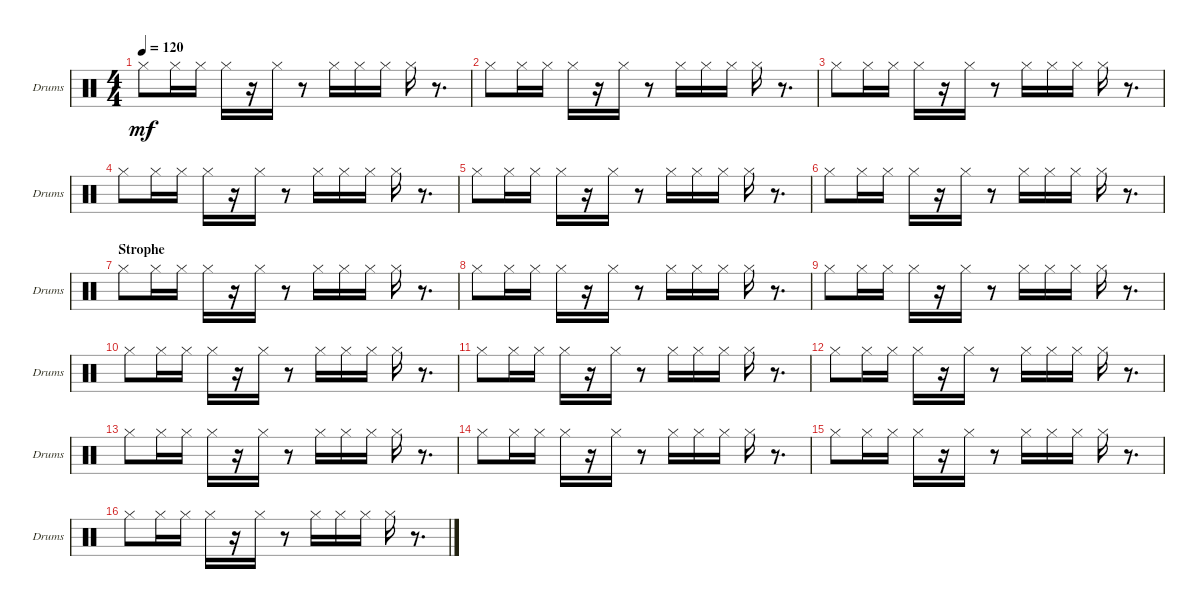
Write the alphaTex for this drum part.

\bracketExtendMode groupsimilarinstruments
\singleTrackTrackNamePolicy allsystems
\multiTrackTrackNamePolicy allsystems
\firstSystemTrackNameOrientation horizontal
\otherSystemsTrackNameOrientation horizontal
\track ("Drum hihat" "Drums") {instrument percussion}
\staff {score}
\articulation defaults
\ts (4 4)
\tempo 120
\clef neutral
\scale
0.973518
\ks c "Hi-Hat (closed)".8{dy mf} "Hi-Hat (closed)".16 "Hi-Hat (closed)".16 "Hi-Hat (closed)".16
r.16 "Hi-Hat (closed)".16 r.8 "Hi-Hat (closed)".16 "Hi-Hat (closed)".16 "Hi-Hat (closed)".16 "Hi-Hat (closed)".16 r.8{d} |
\scale
0.973518 "Hi-Hat (closed)".8 "Hi-Hat (closed)".16 "Hi-Hat (closed)".16 "Hi-Hat (closed)".16 r.16 "Hi-Hat (closed)".16 r.8 "Hi-Hat (closed)".16 "Hi-Hat (closed)".16 "Hi-Hat (closed)".16 "Hi-Hat (closed)".16 r.8{d} |
\scale
1.05296 "Hi-Hat (closed)".8 "Hi-Hat (closed)".16 "Hi-Hat (closed)".16 "Hi-Hat (closed)".16 r.16 "Hi-Hat (closed)".16 r.8 "Hi-Hat (closed)".16 "Hi-Hat (closed)".16 "Hi-Hat (closed)".16 "Hi-Hat (closed)".16 r.8{d} |
\scale
0.973518 "Hi-Hat (closed)".8 "Hi-Hat (closed)".16 "Hi-Hat (closed)".16 "Hi-Hat (closed)".16 r.16 "Hi-Hat (closed)".16 r.8 "Hi-Hat (closed)".16 "Hi-Hat (closed)".16 "Hi-Hat (closed)".16 "Hi-Hat (closed)".16 r.8{d} |
\scale
0.973518 "Hi-Hat (closed)".8 "Hi-Hat (closed)".16 "Hi-Hat (closed)".16 "Hi-Hat (closed)".16 r.16 "Hi-Hat (closed)".16 r.8 "Hi-Hat (closed)".16 "Hi-Hat (closed)".16 "Hi-Hat (closed)".16 "Hi-Hat (closed)".16 r.8{d} |
\scale
1.05296 "Hi-Hat (closed)".8 "Hi-Hat (closed)".16 "Hi-Hat (closed)".16 "Hi-Hat (closed)".16 r.16 "Hi-Hat (closed)".16 r.8 "Hi-Hat (closed)".16 "Hi-Hat (closed)".16 "Hi-Hat (closed)".16 "Hi-Hat (closed)".16 r.8{d} |
\section ("" "Strophe")
\scale
0.973518 "Hi-Hat (closed)".8 "Hi-Hat (closed)".16 "Hi-Hat (closed)".16 "Hi-Hat (closed)".16 r.16 "Hi-Hat (closed)".16 r.8 "Hi-Hat (closed)".16 "Hi-Hat (closed)".16 "Hi-Hat (closed)".16 "Hi-Hat (closed)".16 r.8{d} |
\scale
0.973518 "Hi-Hat (closed)".8 "Hi-Hat (closed)".16 "Hi-Hat (closed)".16 "Hi-Hat (closed)".16 r.16 "Hi-Hat (closed)".16 r.8 "Hi-Hat (closed)".16 "Hi-Hat (closed)".16 "Hi-Hat (closed)".16 "Hi-Hat (closed)".16 r.8{d} |
\scale
1.05296 "Hi-Hat (closed)".8 "Hi-Hat (closed)".16 "Hi-Hat (closed)".16 "Hi-Hat (closed)".16 r.16 "Hi-Hat (closed)".16 r.8 "Hi-Hat (closed)".16 "Hi-Hat (closed)".16 "Hi-Hat (closed)".16 "Hi-Hat (closed)".16 r.8{d} |
\scale
0.973518 "Hi-Hat (closed)".8 "Hi-Hat (closed)".16 "Hi-Hat (closed)".16 "Hi-Hat (closed)".16 r.16 "Hi-Hat (closed)".16 r.8 "Hi-Hat (closed)".16 "Hi-Hat (closed)".16 "Hi-Hat (closed)".16 "Hi-Hat (closed)".16 r.8{d} |
\scale
0.973518 "Hi-Hat (closed)".8 "Hi-Hat (closed)".16 "Hi-Hat (closed)".16 "Hi-Hat (closed)".16 r.16 "Hi-Hat (closed)".16 r.8 "Hi-Hat (closed)".16 "Hi-Hat (closed)".16 "Hi-Hat (closed)".16 "Hi-Hat (closed)".16 r.8{d} |
\scale
1.05296 "Hi-Hat (closed)".8 "Hi-Hat (closed)".16 "Hi-Hat (closed)".16 "Hi-Hat (closed)".16 r.16 "Hi-Hat (closed)".16 r.8 "Hi-Hat (closed)".16 "Hi-Hat (closed)".16 "Hi-Hat (closed)".16 "Hi-Hat (closed)".16 r.8{d} |
\scale
0.973518 "Hi-Hat (closed)".8 "Hi-Hat (closed)".16 "Hi-Hat (closed)".16 "Hi-Hat (closed)".16 r.16 "Hi-Hat (closed)".16 r.8 "Hi-Hat (closed)".16 "Hi-Hat (closed)".16 "Hi-Hat (closed)".16 "Hi-Hat (closed)".16 r.8{d} |
\scale
0.973518 "Hi-Hat (closed)".8 "Hi-Hat (closed)".16 "Hi-Hat (closed)".16 "Hi-Hat (closed)".16 r.16 "Hi-Hat (closed)".16 r.8 "Hi-Hat (closed)".16 "Hi-Hat (closed)".16 "Hi-Hat (closed)".16 "Hi-Hat (closed)".16 r.8{d} |
\scale
1.05296 "Hi-Hat (closed)".8 "Hi-Hat (closed)".16 "Hi-Hat (closed)".16 "Hi-Hat (closed)".16 r.16 "Hi-Hat (closed)".16 r.8 "Hi-Hat (closed)".16 "Hi-Hat (closed)".16 "Hi-Hat (closed)".16 "Hi-Hat (closed)".16 r.8{d} |
\scale
0.973518 "Hi-Hat (closed)".8 "Hi-Hat (closed)".16 "Hi-Hat (closed)".16 "Hi-Hat (closed)".16 r.16 "Hi-Hat (closed)".16 r.8 "Hi-Hat (closed)".16 "Hi-Hat (closed)".16 "Hi-Hat (closed)".16 "Hi-Hat (closed)".16 r.8{d}
